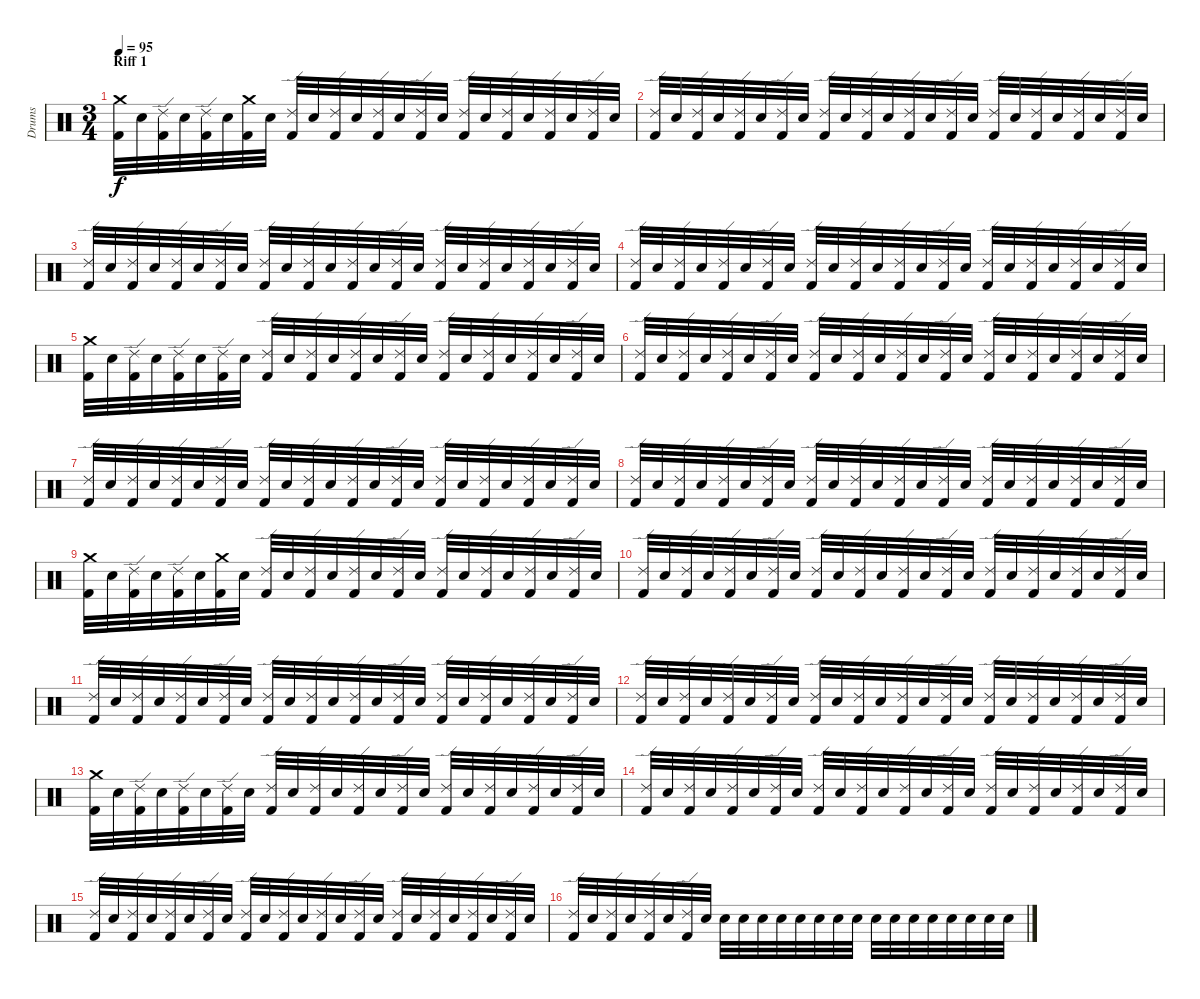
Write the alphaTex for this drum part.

\track ("Drums" "Drums") {instrument percussion}
\staff {score}
\articulation defaults
\ts (3 4)
\section ("" "Riff 1")
\tempo 95
\clef neutral
\ks c
("Crash medium (hit)" "Kick (hit) 2").32{dy f} "Electric Snare (hit)".32 ("Ride (edge) 2" "Kick (hit) 2").32 "Electric Snare (hit)".32 ("Ride (edge) 2" "Kick (hit) 2").32 "Electric Snare (hit)".32 ("Crash medium (hit)" "Kick (hit) 2").32 "Electric Snare (hit)".32 ("Ride (edge) 2" "Kick (hit) 2").32 "Electric Snare (hit)".32 ("Ride (edge) 2" "Kick (hit) 2").32 "Electric Snare (hit)".32 ("Ride (edge) 2" "Kick (hit) 2").32 "Electric Snare (hit)".32 ("Ride (edge) 2" "Kick (hit) 2").32 "Electric Snare (hit)".32 ("Ride (edge) 2" "Kick (hit) 2").32 "Electric Snare (hit)".32 ("Ride (edge) 2" "Kick (hit) 2").32 "Electric Snare (hit)".32 ("Ride (edge) 2" "Kick (hit) 2").32 "Electric Snare (hit)".32 ("Ride (edge) 2" "Kick (hit) 2").32 "Electric Snare (hit)".32 |
("Ride (edge) 2" "Kick (hit) 2").32 "Electric Snare (hit)".32 ("Ride (edge) 2" "Kick (hit) 2").32 "Electric Snare (hit)".32 ("Ride (edge) 2" "Kick (hit) 2").32 "Electric Snare (hit)".32 ("Ride (edge) 2" "Kick (hit) 2").32 "Electric Snare (hit)".32 ("Ride (edge) 2" "Kick (hit) 2").32 "Electric Snare (hit)".32 ("Ride (edge) 2" "Kick (hit) 2").32 "Electric Snare (hit)".32 ("Ride (edge) 2" "Kick (hit) 2").32 "Electric Snare (hit)".32 ("Ride (edge) 2" "Kick (hit) 2").32 "Electric Snare (hit)".32 ("Ride (edge) 2" "Kick (hit) 2").32 "Electric Snare (hit)".32 ("Ride (edge) 2" "Kick (hit) 2").32 "Electric Snare (hit)".32 ("Ride (edge) 2" "Kick (hit) 2").32 "Electric Snare (hit)".32 ("Ride (edge) 2" "Kick (hit) 2").32 "Electric Snare (hit)".32 |
("Ride (edge) 2" "Kick (hit) 2").32 "Electric Snare (hit)".32 ("Ride (edge) 2" "Kick (hit) 2").32 "Electric Snare (hit)".32 ("Ride (edge) 2" "Kick (hit) 2").32 "Electric Snare (hit)".32 ("Ride (edge) 2" "Kick (hit) 2").32 "Electric Snare (hit)".32 ("Ride (edge) 2" "Kick (hit) 2").32 "Electric Snare (hit)".32 ("Ride (edge) 2" "Kick (hit) 2").32 "Electric Snare (hit)".32 ("Ride (edge) 2" "Kick (hit) 2").32 "Electric Snare (hit)".32 ("Ride (edge) 2" "Kick (hit) 2").32 "Electric Snare (hit)".32 ("Ride (edge) 2" "Kick (hit) 2").32 "Electric Snare (hit)".32 ("Ride (edge) 2" "Kick (hit) 2").32 "Electric Snare (hit)".32 ("Ride (edge) 2" "Kick (hit) 2").32 "Electric Snare (hit)".32 ("Ride (edge) 2" "Kick (hit) 2").32 "Electric Snare (hit)".32 |
("Ride (edge) 2" "Kick (hit) 2").32 "Electric Snare (hit)".32 ("Ride (edge) 2" "Kick (hit) 2").32 "Electric Snare (hit)".32 ("Ride (edge) 2" "Kick (hit) 2").32 "Electric Snare (hit)".32 ("Ride (edge) 2" "Kick (hit) 2").32 "Electric Snare (hit)".32 ("Ride (edge) 2" "Kick (hit) 2").32 "Electric Snare (hit)".32 ("Ride (edge) 2" "Kick (hit) 2").32 "Electric Snare (hit)".32 ("Ride (edge) 2" "Kick (hit) 2").32 "Electric Snare (hit)".32 ("Ride (edge) 2" "Kick (hit) 2").32 "Electric Snare (hit)".32 ("Ride (edge) 2" "Kick (hit) 2").32 "Electric Snare (hit)".32 ("Ride (edge) 2" "Kick (hit) 2").32 "Electric Snare (hit)".32 ("Ride (edge) 2" "Kick (hit) 2").32 "Electric Snare (hit)".32 ("Ride (edge) 2" "Kick (hit) 2").32 "Electric Snare (hit)".32 |
("Crash medium (hit)" "Kick (hit) 2").32 "Electric Snare (hit)".32 ("Ride (edge) 2" "Kick (hit) 2").32 "Electric Snare (hit)".32 ("Ride (edge) 2" "Kick (hit) 2").32 "Electric Snare (hit)".32 ("Ride (edge) 2" "Kick (hit) 2").32 "Electric Snare (hit)".32 ("Ride (edge) 2" "Kick (hit) 2").32 "Electric Snare (hit)".32 ("Ride (edge) 2" "Kick (hit) 2").32 "Electric Snare (hit)".32 ("Ride (edge) 2" "Kick (hit) 2").32 "Electric Snare (hit)".32 ("Ride (edge) 2" "Kick (hit) 2").32 "Electric Snare (hit)".32 ("Ride (edge) 2" "Kick (hit) 2").32 "Electric Snare (hit)".32 ("Ride (edge) 2" "Kick (hit) 2").32 "Electric Snare (hit)".32 ("Ride (edge) 2" "Kick (hit) 2").32 "Electric Snare (hit)".32 ("Ride (edge) 2" "Kick (hit) 2").32 "Electric Snare (hit)".32 |
("Ride (edge) 2" "Kick (hit) 2").32 "Electric Snare (hit)".32 ("Ride (edge) 2" "Kick (hit) 2").32 "Electric Snare (hit)".32 ("Ride (edge) 2" "Kick (hit) 2").32 "Electric Snare (hit)".32 ("Ride (edge) 2" "Kick (hit) 2").32 "Electric Snare (hit)".32 ("Ride (edge) 2" "Kick (hit) 2").32 "Electric Snare (hit)".32 ("Ride (edge) 2" "Kick (hit) 2").32 "Electric Snare (hit)".32 ("Ride (edge) 2" "Kick (hit) 2").32 "Electric Snare (hit)".32 ("Ride (edge) 2" "Kick (hit) 2").32 "Electric Snare (hit)".32 ("Ride (edge) 2" "Kick (hit) 2").32 "Electric Snare (hit)".32 ("Ride (edge) 2" "Kick (hit) 2").32 "Electric Snare (hit)".32 ("Ride (edge) 2" "Kick (hit) 2").32 "Electric Snare (hit)".32 ("Ride (edge) 2" "Kick (hit) 2").32 "Electric Snare (hit)".32 |
("Ride (edge) 2" "Kick (hit) 2").32 "Electric Snare (hit)".32 ("Ride (edge) 2" "Kick (hit) 2").32 "Electric Snare (hit)".32 ("Ride (edge) 2" "Kick (hit) 2").32 "Electric Snare (hit)".32 ("Ride (edge) 2" "Kick (hit) 2").32 "Electric Snare (hit)".32 ("Ride (edge) 2" "Kick (hit) 2").32 "Electric Snare (hit)".32 ("Ride (edge) 2" "Kick (hit) 2").32 "Electric Snare (hit)".32 ("Ride (edge) 2" "Kick (hit) 2").32 "Electric Snare (hit)".32 ("Ride (edge) 2" "Kick (hit) 2").32 "Electric Snare (hit)".32 ("Ride (edge) 2" "Kick (hit) 2").32 "Electric Snare (hit)".32 ("Ride (edge) 2" "Kick (hit) 2").32 "Electric Snare (hit)".32 ("Ride (edge) 2" "Kick (hit) 2").32 "Electric Snare (hit)".32 ("Ride (edge) 2" "Kick (hit) 2").32 "Electric Snare (hit)".32 |
("Ride (edge) 2" "Kick (hit) 2").32 "Electric Snare (hit)".32 ("Ride (edge) 2" "Kick (hit) 2").32 "Electric Snare (hit)".32 ("Ride (edge) 2" "Kick (hit) 2").32 "Electric Snare (hit)".32 ("Ride (edge) 2" "Kick (hit) 2").32 "Electric Snare (hit)".32 ("Ride (edge) 2" "Kick (hit) 2").32 "Electric Snare (hit)".32 ("Ride (edge) 2" "Kick (hit) 2").32 "Electric Snare (hit)".32 ("Ride (edge) 2" "Kick (hit) 2").32 "Electric Snare (hit)".32 ("Ride (edge) 2" "Kick (hit) 2").32 "Electric Snare (hit)".32 ("Ride (edge) 2" "Kick (hit) 2").32 "Electric Snare (hit)".32 ("Ride (edge) 2" "Kick (hit) 2").32 "Electric Snare (hit)".32 ("Ride (edge) 2" "Kick (hit) 2").32 "Electric Snare (hit)".32 ("Ride (edge) 2" "Kick (hit) 2").32 "Electric Snare (hit)".32 |
("Crash medium (hit)" "Kick (hit) 2").32 "Electric Snare (hit)".32 ("Ride (edge) 2" "Kick (hit) 2").32 "Electric Snare (hit)".32 ("Ride (edge) 2" "Kick (hit) 2").32 "Electric Snare (hit)".32 ("Crash medium (hit)" "Kick (hit) 2").32 "Electric Snare (hit)".32 ("Ride (edge) 2" "Kick (hit) 2").32 "Electric Snare (hit)".32 ("Ride (edge) 2" "Kick (hit) 2").32 "Electric Snare (hit)".32 ("Ride (edge) 2" "Kick (hit) 2").32 "Electric Snare (hit)".32 ("Ride (edge) 2" "Kick (hit) 2").32 "Electric Snare (hit)".32 ("Ride (edge) 2" "Kick (hit) 2").32 "Electric Snare (hit)".32 ("Ride (edge) 2" "Kick (hit) 2").32 "Electric Snare (hit)".32 ("Ride (edge) 2" "Kick (hit) 2").32 "Electric Snare (hit)".32 ("Ride (edge) 2" "Kick (hit) 2").32 "Electric Snare (hit)".32 |
("Ride (edge) 2" "Kick (hit) 2").32 "Electric Snare (hit)".32 ("Ride (edge) 2" "Kick (hit) 2").32 "Electric Snare (hit)".32 ("Ride (edge) 2" "Kick (hit) 2").32 "Electric Snare (hit)".32 ("Ride (edge) 2" "Kick (hit) 2").32 "Electric Snare (hit)".32 ("Ride (edge) 2" "Kick (hit) 2").32 "Electric Snare (hit)".32 ("Ride (edge) 2" "Kick (hit) 2").32 "Electric Snare (hit)".32 ("Ride (edge) 2" "Kick (hit) 2").32 "Electric Snare (hit)".32 ("Ride (edge) 2" "Kick (hit) 2").32 "Electric Snare (hit)".32 ("Ride (edge) 2" "Kick (hit) 2").32 "Electric Snare (hit)".32 ("Ride (edge) 2" "Kick (hit) 2").32 "Electric Snare (hit)".32 ("Ride (edge) 2" "Kick (hit) 2").32 "Electric Snare (hit)".32 ("Ride (edge) 2" "Kick (hit) 2").32 "Electric Snare (hit)".32 |
("Ride (edge) 2" "Kick (hit) 2").32 "Electric Snare (hit)".32 ("Ride (edge) 2" "Kick (hit) 2").32 "Electric Snare (hit)".32 ("Ride (edge) 2" "Kick (hit) 2").32 "Electric Snare (hit)".32 ("Ride (edge) 2" "Kick (hit) 2").32 "Electric Snare (hit)".32 ("Ride (edge) 2" "Kick (hit) 2").32 "Electric Snare (hit)".32 ("Ride (edge) 2" "Kick (hit) 2").32 "Electric Snare (hit)".32 ("Ride (edge) 2" "Kick (hit) 2").32 "Electric Snare (hit)".32 ("Ride (edge) 2" "Kick (hit) 2").32 "Electric Snare (hit)".32 ("Ride (edge) 2" "Kick (hit) 2").32 "Electric Snare (hit)".32 ("Ride (edge) 2" "Kick (hit) 2").32 "Electric Snare (hit)".32 ("Ride (edge) 2" "Kick (hit) 2").32 "Electric Snare (hit)".32 ("Ride (edge) 2" "Kick (hit) 2").32 "Electric Snare (hit)".32 |
("Ride (edge) 2" "Kick (hit) 2").32 "Electric Snare (hit)".32 ("Ride (edge) 2" "Kick (hit) 2").32 "Electric Snare (hit)".32 ("Ride (edge) 2" "Kick (hit) 2").32 "Electric Snare (hit)".32 ("Ride (edge) 2" "Kick (hit) 2").32 "Electric Snare (hit)".32 ("Ride (edge) 2" "Kick (hit) 2").32 "Electric Snare (hit)".32 ("Ride (edge) 2" "Kick (hit) 2").32 "Electric Snare (hit)".32 ("Ride (edge) 2" "Kick (hit) 2").32 "Electric Snare (hit)".32 ("Ride (edge) 2" "Kick (hit) 2").32 "Electric Snare (hit)".32 ("Ride (edge) 2" "Kick (hit) 2").32 "Electric Snare (hit)".32 ("Ride (edge) 2" "Kick (hit) 2").32 "Electric Snare (hit)".32 ("Ride (edge) 2" "Kick (hit) 2").32 "Electric Snare (hit)".32 ("Ride (edge) 2" "Kick (hit) 2").32 "Electric Snare (hit)".32 |
("Crash medium (hit)" "Kick (hit) 2").32 "Electric Snare (hit)".32 ("Ride (edge) 2" "Kick (hit) 2").32 "Electric Snare (hit)".32 ("Ride (edge) 2" "Kick (hit) 2").32 "Electric Snare (hit)".32 ("Ride (edge) 2" "Kick (hit) 2").32 "Electric Snare (hit)".32 ("Ride (edge) 2" "Kick (hit) 2").32 "Electric Snare (hit)".32 ("Ride (edge) 2" "Kick (hit) 2").32 "Electric Snare (hit)".32 ("Ride (edge) 2" "Kick (hit) 2").32 "Electric Snare (hit)".32 ("Ride (edge) 2" "Kick (hit) 2").32 "Electric Snare (hit)".32 ("Ride (edge) 2" "Kick (hit) 2").32 "Electric Snare (hit)".32 ("Ride (edge) 2" "Kick (hit) 2").32 "Electric Snare (hit)".32 ("Ride (edge) 2" "Kick (hit) 2").32 "Electric Snare (hit)".32 ("Ride (edge) 2" "Kick (hit) 2").32 "Electric Snare (hit)".32 |
("Ride (edge) 2" "Kick (hit) 2").32 "Electric Snare (hit)".32 ("Ride (edge) 2" "Kick (hit) 2").32 "Electric Snare (hit)".32 ("Ride (edge) 2" "Kick (hit) 2").32 "Electric Snare (hit)".32 ("Ride (edge) 2" "Kick (hit) 2").32 "Electric Snare (hit)".32 ("Ride (edge) 2" "Kick (hit) 2").32 "Electric Snare (hit)".32 ("Ride (edge) 2" "Kick (hit) 2").32 "Electric Snare (hit)".32 ("Ride (edge) 2" "Kick (hit) 2").32 "Electric Snare (hit)".32 ("Ride (edge) 2" "Kick (hit) 2").32 "Electric Snare (hit)".32 ("Ride (edge) 2" "Kick (hit) 2").32 "Electric Snare (hit)".32 ("Ride (edge) 2" "Kick (hit) 2").32 "Electric Snare (hit)".32 ("Ride (edge) 2" "Kick (hit) 2").32 "Electric Snare (hit)".32 ("Ride (edge) 2" "Kick (hit) 2").32 "Electric Snare (hit)".32 |
("Ride (edge) 2" "Kick (hit) 2").32 "Electric Snare (hit)".32 ("Ride (edge) 2" "Kick (hit) 2").32 "Electric Snare (hit)".32 ("Ride (edge) 2" "Kick (hit) 2").32 "Electric Snare (hit)".32 ("Ride (edge) 2" "Kick (hit) 2").32 "Electric Snare (hit)".32 ("Ride (edge) 2" "Kick (hit) 2").32 "Electric Snare (hit)".32 ("Ride (edge) 2" "Kick (hit) 2").32 "Electric Snare (hit)".32 ("Ride (edge) 2" "Kick (hit) 2").32 "Electric Snare (hit)".32 ("Ride (edge) 2" "Kick (hit) 2").32 "Electric Snare (hit)".32 ("Ride (edge) 2" "Kick (hit) 2").32 "Electric Snare (hit)".32 ("Ride (edge) 2" "Kick (hit) 2").32 "Electric Snare (hit)".32 ("Ride (edge) 2" "Kick (hit) 2").32 "Electric Snare (hit)".32 ("Ride (edge) 2" "Kick (hit) 2").32 "Electric Snare (hit)".32 |
("Ride (edge) 2" "Kick (hit) 2").32 "Electric Snare (hit)".32 ("Ride (edge) 2" "Kick (hit) 2").32 "Electric Snare (hit)".32 ("Ride (edge) 2" "Kick (hit) 2").32 "Electric Snare (hit)".32 ("Ride (edge) 2" "Kick (hit) 2").32 "Electric Snare (hit)".32 "Electric Snare (hit)".32 "Electric Snare (hit)".32 "Electric Snare (hit)".32 "Electric Snare (hit)".32 "Electric Snare (hit)".32 "Electric Snare (hit)".32 "Electric Snare (hit)".32 "Electric Snare (hit)".32 "Electric Snare (hit)".32 "Electric Snare (hit)".32 "Electric Snare (hit)".32 "Electric Snare (hit)".32 "Electric Snare (hit)".32 "Electric Snare (hit)".32 "Electric Snare (hit)".32 "Electric Snare (hit)".32
